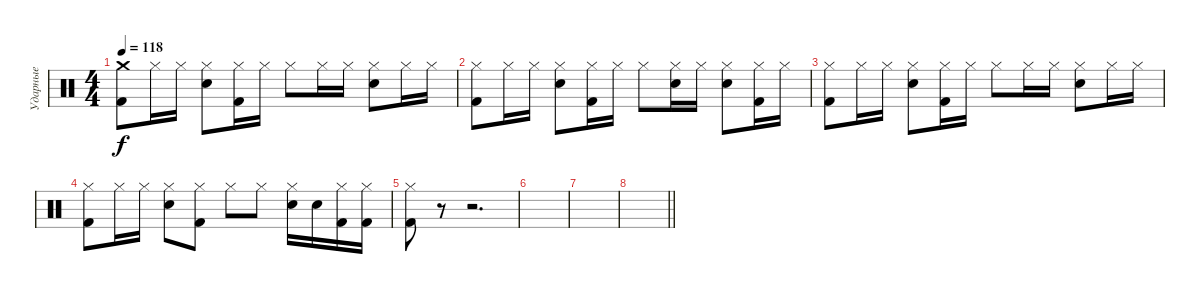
\track ("Ударные" "Ударные") {instrument percussion}
\staff {score}
\articulation defaults
\ts (4 4)
\tempo 118
\clef neutral
\ks c
("Crash medium (hit)" "Kick (hit) 2").8{dy f} "Hi-Hat (closed)".16 "Hi-Hat (closed)".16 ("Hi-Hat (closed)" "Electric Snare (hit)").8 ("Hi-Hat (closed)" "Kick (hit) 2").16 "Hi-Hat (closed)".16 "Hi-Hat (closed)".8 "Hi-Hat (closed)".16 "Hi-Hat (closed)".16 ("Hi-Hat (closed)" "Electric Snare (hit)").8 "Hi-Hat (closed)".16 "Hi-Hat (closed)".16 |
("Hi-Hat (closed)" "Kick (hit) 2").8 "Hi-Hat (closed)".16 "Hi-Hat (closed)".16 ("Hi-Hat (closed)" "Electric Snare (hit)").8 ("Hi-Hat (closed)" "Kick (hit) 2").16 "Hi-Hat (closed)".16 "Hi-Hat (closed)".8 ("Hi-Hat (closed)" "Electric Snare (hit)").16 "Hi-Hat (closed)".16 ("Hi-Hat (closed)" "Electric Snare (hit)").8 ("Hi-Hat (closed)" "Kick (hit) 2").16 "Hi-Hat (closed)".16 |
("Hi-Hat (closed)" "Kick (hit) 2").8 "Hi-Hat (closed)".16 "Hi-Hat (closed)".16 ("Hi-Hat (closed)" "Electric Snare (hit)").8 ("Hi-Hat (closed)" "Kick (hit) 2").16 "Hi-Hat (closed)".16 "Hi-Hat (closed)".8 "Hi-Hat (closed)".16 "Hi-Hat (closed)".16 ("Hi-Hat (closed)" "Electric Snare (hit)").8 "Hi-Hat (closed)".16 "Hi-Hat (closed)".16 |
("Hi-Hat (closed)" "Kick (hit) 2").8 "Hi-Hat (closed)".16 "Hi-Hat (closed)".16 ("Hi-Hat (closed)" "Electric Snare (hit)").8 ("Hi-Hat (closed)" "Kick (hit) 2").8 "Hi-Hat (closed)".8 "Hi-Hat (closed)".8 ("Hi-Hat (closed)" "Electric Snare (hit)").16 "Electric Snare (hit)".16 ("Hi-Hat (closed)" "Kick (hit) 2").16 ("Hi-Hat (closed)" "Kick (hit) 2").16 |
("Hi-Hat (closed)" "Kick (hit) 2").8 r.8 r.2{d} |
|
|
\barLineRight lightlight
